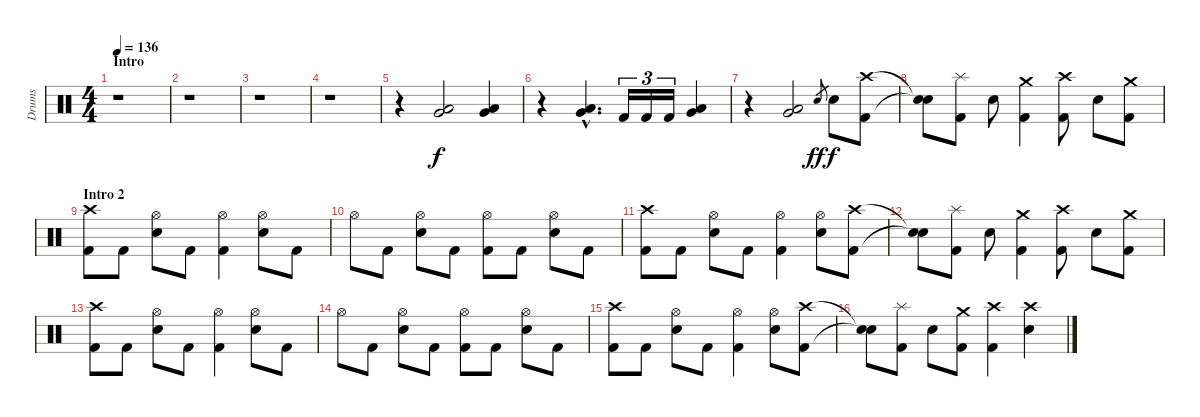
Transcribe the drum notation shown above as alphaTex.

\track ("Drums" "Drums") {instrument percussion}
\staff {score}
\articulation defaults
\ts (4 4)
\section ("" "Intro")
\tempo 136
\clef neutral
\ks c
r.1{dy f} |
r.1 |
r.1 |
r.1 |
r.4 ("Very Low Tom (hit)" "Low Floor Tom (hit)").2 ("Very Low Tom (hit)" "Low Floor Tom (hit)").4 |
r.4 ("Very Low Tom (hit)"{hac} "Low Floor Tom (hit)"{hac}).4{d} "Kick (hit) 2".16{tu (3 2)} "Kick (hit) 2".16{tu (3 2)} "Kick (hit) 2".16{tu (3 2)} ("Very Low Tom (hit)" "Low Floor Tom (hit)").4 |
r.4 ("Very Low Tom (hit)" "Low Floor Tom (hit)").2 "Snare (hit) 2".8{gr dy ff} "Snare (hit) 2".8{dy f} ("Crash high (hit)" "Kick (hit) 2").8 |
("Snare (hit)"{t} "Snare (hit)"{t}).8 ("Splash (hit)" "Kick (hit) 2").8 "Snare (hit) 2".8 ("Crash medium (hit)" "Kick (hit) 2").4 ("Crash high (hit)" "Kick (hit) 2").8 "Snare (hit) 2".8 ("Crash medium (hit)" "Kick (hit) 2").8 |
\section ("" "Intro 2")
("Crash high (hit)" "Kick (hit) 2").8 "Kick (hit) 2".8 ("Hi-Hat (open)" "Snare (hit) 2").8 "Kick (hit) 2".8 ("Hi-Hat (open)" "Kick (hit) 2").4 ("Hi-Hat (open)" "Snare (hit) 2").8 "Kick (hit) 2".8 |
"Hi-Hat (open)".8 "Kick (hit) 2".8 ("Hi-Hat (open)" "Snare (hit) 2").8 "Kick (hit) 2".8 ("Hi-Hat (open)" "Kick (hit) 2").8 "Kick (hit) 2".8 ("Hi-Hat (open)" "Snare (hit) 2").8 "Kick (hit) 2".8 |
("Crash high (hit)" "Kick (hit) 2").8 "Kick (hit) 2".8 ("Hi-Hat (open)" "Snare (hit) 2").8 "Kick (hit) 2".8 ("Hi-Hat (open)" "Kick (hit) 2").4 ("Hi-Hat (open)" "Snare (hit) 2").8 ("Crash high (hit)" "Kick (hit) 2").8 |
("Snare (hit)"{t} "Snare (hit)"{t}).8 ("Splash (hit)" "Kick (hit) 2").8 "Snare (hit) 2".8 ("Crash medium (hit)" "Kick (hit) 2").4 ("Crash high (hit)" "Kick (hit) 2").8 "Snare (hit) 2".8 ("Crash medium (hit)" "Kick (hit) 2").8 |
("Crash high (hit)" "Kick (hit) 2").8 "Kick (hit) 2".8 ("Hi-Hat (open)" "Snare (hit) 2").8 "Kick (hit) 2".8 ("Hi-Hat (open)" "Kick (hit) 2").4 ("Hi-Hat (open)" "Snare (hit) 2").8 "Kick (hit) 2".8 |
"Hi-Hat (open)".8 "Kick (hit) 2".8 ("Hi-Hat (open)" "Snare (hit) 2").8 "Kick (hit) 2".8 ("Hi-Hat (open)" "Kick (hit) 2").8 "Kick (hit) 2".8 ("Hi-Hat (open)" "Snare (hit) 2").8 "Kick (hit) 2".8 |
("Crash high (hit)" "Kick (hit) 2").8 "Kick (hit) 2".8 ("Hi-Hat (open)" "Snare (hit) 2").8 "Kick (hit) 2".8 ("Hi-Hat (open)" "Kick (hit) 2").4 ("Hi-Hat (open)" "Snare (hit) 2").8 ("Crash high (hit)" "Kick (hit) 2").8 |
("Snare (hit)"{t} "Snare (hit)"{t}).8 ("Splash (hit)" "Kick (hit) 2").8 "Snare (hit) 2".8 ("Crash medium (hit)" "Kick (hit) 2").8 ("Crash high (hit)" "Kick (hit) 2").4 ("Crash high (hit)" "Snare (hit) 2").4
